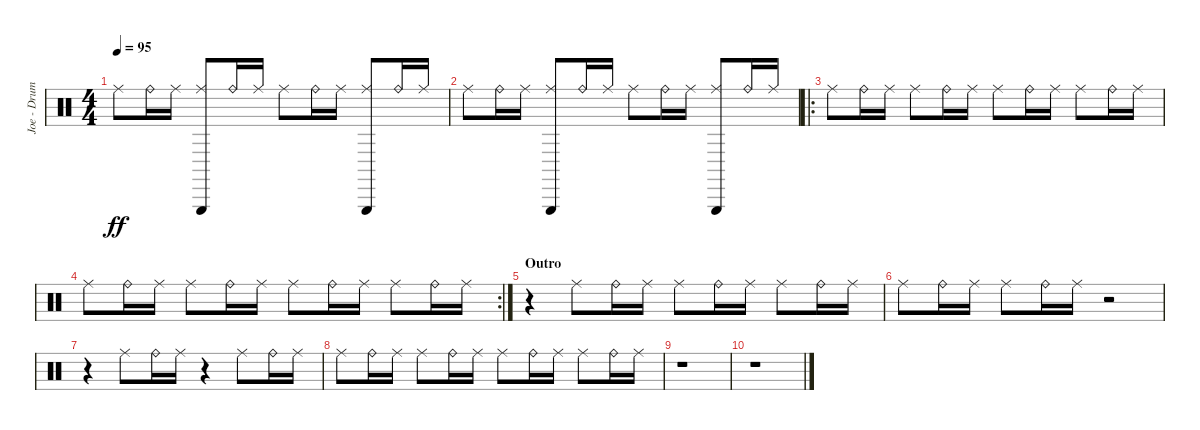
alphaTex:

\track ("Joe - Drums samples" "Joe - Drum") {instrument percussion}
\staff {score}
\articulation defaults
\ts (4 4)
\tempo 95
\clef neutral
\ks c "Ride (middle)".8{dy ff} "Ride (bell)".16 "Ride (middle)".16
("Triangle (hit)" "Ride (middle)").8 "Ride (bell)".16 "Ride (middle)".16 "Ride (middle)".8 "Ride (bell)".16 "Ride (middle)".16 ("Triangle (hit)" "Ride (middle)").8 "Ride (bell)".16 "Ride (middle)".16 |
"Ride (middle)".8 "Ride (bell)".16 "Ride (middle)".16 ("Triangle (hit)" "Ride (middle)").8 "Ride (bell)".16 "Ride (middle)".16 "Ride (middle)".8 "Ride (bell)".16 "Ride (middle)".16 ("Triangle (hit)" "Ride (middle)").8 "Ride (bell)".16 "Ride (middle)".16 |
\ro "Ride (middle)".8 "Ride (bell)".16 "Ride (middle)".16 "Ride (middle)".8 "Ride (bell)".16 "Ride (middle)".16 "Ride (middle)".8 "Ride (bell)".16 "Ride (middle)".16 "Ride (middle)".8 "Ride (bell)".16 "Ride (middle)".16
|
\rc 2 "Ride (middle)".8 "Ride (bell)".16 "Ride (middle)".16 "Ride (middle)".8 "Ride (bell)".16 "Ride (middle)".16 "Ride (middle)".8 "Ride (bell)".16 "Ride (middle)".16 "Ride (middle)".8 "Ride (bell)".16 "Ride (middle)".16
|
\section ("" "Outro")
r.4 "Ride (middle)".8 "Ride (bell)".16 "Ride (middle)".16 "Ride (middle)".8 "Ride (bell)".16 "Ride (middle)".16 "Ride (middle)".8 "Ride (bell)".16 "Ride (middle)".16 |
"Ride (middle)".8 "Ride (bell)".16 "Ride (middle)".16 "Ride (middle)".8 "Ride (bell)".16 "Ride (middle)".16 r.2 |
r.4 "Ride (middle)".8 "Ride (bell)".16 "Ride (middle)".16 r.4 "Ride (middle)".8 "Ride (bell)".16 "Ride (middle)".16 |
"Ride (middle)".8 "Ride (bell)".16 "Ride (middle)".16 "Ride (middle)".8 "Ride (bell)".16 "Ride (middle)".16 "Ride (middle)".8 "Ride (bell)".16 "Ride (middle)".16 "Ride (middle)".8 "Ride (bell)".16 "Ride (middle)".16 |
r.1 |
r.1
